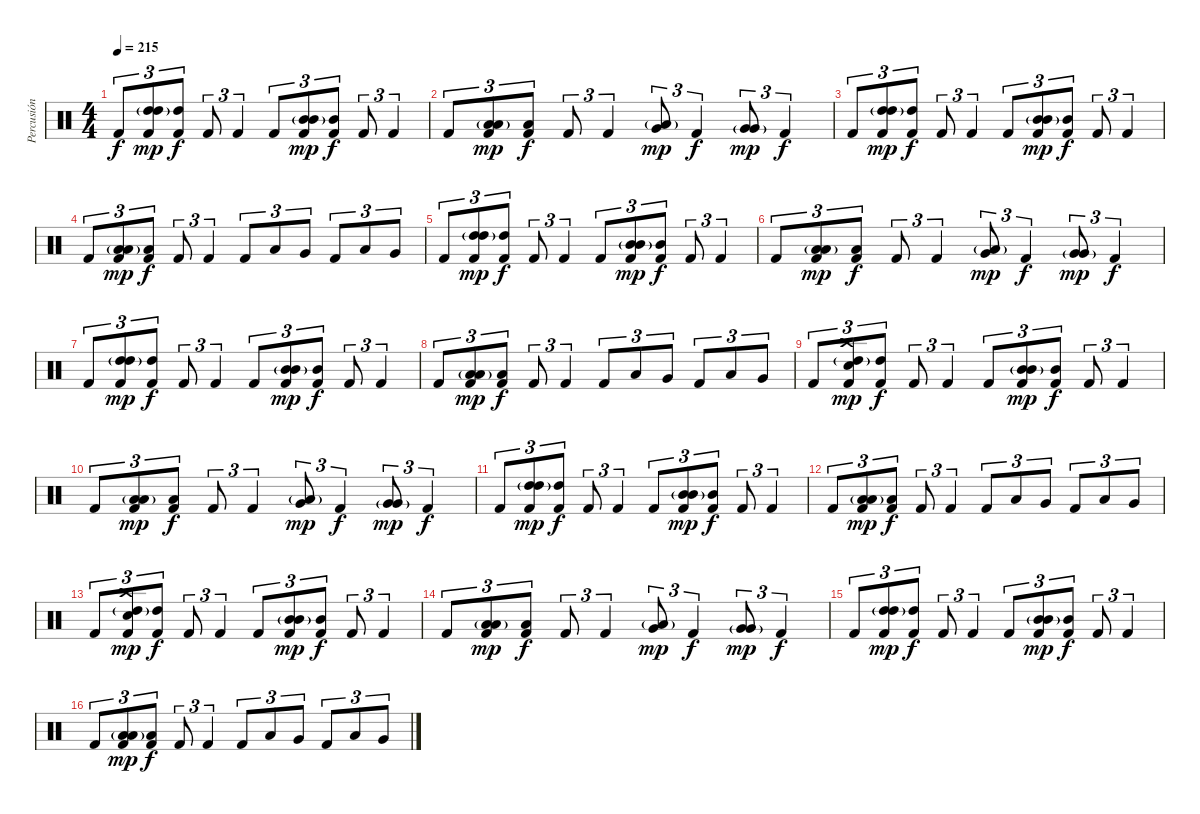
\track ("Percusión" "Percusión") {instrument percussion}
\staff {score}
\articulation defaults
\ts (4 4)
\tempo 215
\clef neutral
\ks c "Kick (hit) 2".8{tu (3 2) dy f}
("High Tom (hit)"{g} "High Tom (hit)" "Kick (hit) 2").8{tu (3 2) dy mp} ("High Tom (hit)" "Kick (hit) 2").8{tu (3 2) dy f} "Kick (hit) 2".8{tu (3 2)} "Kick (hit) 2".4{tu (3 2)} "Kick (hit) 2".8{tu (3 2)} ("Mid Tom (hit)"{g} "Mid Tom (hit)" "Kick (hit) 2").8{tu (3 2) dy mp} ("Mid Tom (hit)" "Kick (hit) 2").8{tu (3 2) dy f} "Kick (hit) 2".8{tu (3 2)} "Kick (hit) 2".4{tu (3 2)} |
"Kick (hit) 2".8{tu (3 2)} ("Low Tom (hit)"{g} "Low Tom (hit)" "Kick (hit) 2").8{tu (3 2) dy mp} ("Low Tom (hit)" "Kick (hit) 2").8{tu (3 2) dy f} "Kick (hit) 2".8{tu (3 2)} "Kick (hit) 2".4{tu (3 2)} ("Very Low Tom (hit)" "Low Tom (hit)"{g}).8{tu (3 2) dy mp} "Kick (hit) 2".4{tu (3 2) dy f} ("Very Low Tom (hit)" "Very Low Tom (hit)"{g}).8{tu (3 2) dy mp} "Kick (hit) 2".4{tu (3 2) dy f} |
"Kick (hit) 2".8{tu (3 2)} ("High Tom (hit)"{g} "High Tom (hit)" "Kick (hit) 2").8{tu (3 2) dy mp} ("High Tom (hit)" "Kick (hit) 2").8{tu (3 2) dy f} "Kick (hit) 2".8{tu (3 2)} "Kick (hit) 2".4{tu (3 2)} "Kick (hit) 2".8{tu (3 2)} ("Mid Tom (hit)"{g} "Mid Tom (hit)" "Kick (hit) 2").8{tu (3 2) dy mp} ("Mid Tom (hit)" "Kick (hit) 2").8{tu (3 2) dy f} "Kick (hit) 2".8{tu (3 2)} "Kick (hit) 2".4{tu (3 2)} |
"Kick (hit) 2".8{tu (3 2)} ("Low Tom (hit)"{g} "Low Tom (hit)" "Kick (hit) 2").8{tu (3 2) dy mp} ("Low Tom (hit)" "Kick (hit) 2").8{tu (3 2) dy f} "Kick (hit) 2".8{tu (3 2)} "Kick (hit) 2".4{tu (3 2)} "Kick (hit) 2".8{tu (3 2)} "Low Tom (hit)".8{tu (3 2)} "Very Low Tom (hit)".8{tu (3 2)} "Kick (hit) 2".8{tu (3 2)} "Low Tom (hit)".8{tu (3 2)} "Very Low Tom (hit)".8{tu (3 2)} |
"Kick (hit) 2".8{tu (3 2)} ("High Tom (hit)"{g} "High Tom (hit)" "Kick (hit) 2").8{tu (3 2) dy mp} ("High Tom (hit)" "Kick (hit) 2").8{tu (3 2) dy f} "Kick (hit) 2".8{tu (3 2)} "Kick (hit) 2".4{tu (3 2)} "Kick (hit) 2".8{tu (3 2)} ("Mid Tom (hit)"{g} "Mid Tom (hit)" "Kick (hit) 2").8{tu (3 2) dy mp} ("Mid Tom (hit)" "Kick (hit) 2").8{tu (3 2) dy f} "Kick (hit) 2".8{tu (3 2)} "Kick (hit) 2".4{tu (3 2)} |
"Kick (hit) 2".8{tu (3 2)} ("Low Tom (hit)"{g} "Low Tom (hit)" "Kick (hit) 2").8{tu (3 2) dy mp} ("Low Tom (hit)" "Kick (hit) 2").8{tu (3 2) dy f} "Kick (hit) 2".8{tu (3 2)} "Kick (hit) 2".4{tu (3 2)} ("Very Low Tom (hit)" "Low Tom (hit)"{g}).8{tu (3 2) dy mp} "Kick (hit) 2".4{tu (3 2) dy f} ("Very Low Tom (hit)" "Very Low Tom (hit)"{g}).8{tu (3 2) dy mp} "Kick (hit) 2".4{tu (3 2) dy f} |
"Kick (hit) 2".8{tu (3 2)} ("High Tom (hit)"{g} "High Tom (hit)" "Kick (hit) 2").8{tu (3 2) dy mp} ("High Tom (hit)" "Kick (hit) 2").8{tu (3 2) dy f} "Kick (hit) 2".8{tu (3 2)} "Kick (hit) 2".4{tu (3 2)} "Kick (hit) 2".8{tu (3 2)} ("Mid Tom (hit)"{g} "Mid Tom (hit)" "Kick (hit) 2").8{tu (3 2) dy mp} ("Mid Tom (hit)" "Kick (hit) 2").8{tu (3 2) dy f} "Kick (hit) 2".8{tu (3 2)} "Kick (hit) 2".4{tu (3 2)} |
"Kick (hit) 2".8{tu (3 2)} ("Low Tom (hit)"{g} "Low Tom (hit)" "Kick (hit) 2").8{tu (3 2) dy mp} ("Low Tom (hit)" "Kick (hit) 2").8{tu (3 2) dy f} "Kick (hit) 2".8{tu (3 2)} "Kick (hit) 2".4{tu (3 2)} "Kick (hit) 2".8{tu (3 2)} "Low Tom (hit)".8{tu (3 2)} "Very Low Tom (hit)".8{tu (3 2)} "Kick (hit) 2".8{tu (3 2)} "Low Tom (hit)".8{tu (3 2)} "Very Low Tom (hit)".8{tu (3 2)} |
"Kick (hit) 2".8{tu (3 2)} ("Crash high (hit)" "High Tom (hit)"{g} "Snare (hit) 2" "Kick (hit) 2").8{tu (3 2) dy mp} ("High Tom (hit)" "Kick (hit) 2").8{tu (3 2) dy f} "Kick (hit) 2".8{tu (3 2)} "Kick (hit) 2".4{tu (3 2)} "Kick (hit) 2".8{tu (3 2)} ("Mid Tom (hit)"{g} "Mid Tom (hit)" "Kick (hit) 2").8{tu (3 2) dy mp} ("Mid Tom (hit)" "Kick (hit) 2").8{tu (3 2) dy f} "Kick (hit) 2".8{tu (3 2)} "Kick (hit) 2".4{tu (3 2)} |
"Kick (hit) 2".8{tu (3 2)} ("Low Tom (hit)"{g} "Low Tom (hit)" "Kick (hit) 2").8{tu (3 2) dy mp} ("Low Tom (hit)" "Kick (hit) 2").8{tu (3 2) dy f} "Kick (hit) 2".8{tu (3 2)} "Kick (hit) 2".4{tu (3 2)} ("Very Low Tom (hit)" "Low Tom (hit)"{g}).8{tu (3 2) dy mp} "Kick (hit) 2".4{tu (3 2) dy f} ("Very Low Tom (hit)" "Very Low Tom (hit)"{g}).8{tu (3 2) dy mp} "Kick (hit) 2".4{tu (3 2) dy f} |
"Kick (hit) 2".8{tu (3 2)} ("High Tom (hit)"{g} "High Tom (hit)" "Kick (hit) 2").8{tu (3 2) dy mp} ("High Tom (hit)" "Kick (hit) 2").8{tu (3 2) dy f} "Kick (hit) 2".8{tu (3 2)} "Kick (hit) 2".4{tu (3 2)} "Kick (hit) 2".8{tu (3 2)} ("Mid Tom (hit)"{g} "Mid Tom (hit)" "Kick (hit) 2").8{tu (3 2) dy mp} ("Mid Tom (hit)" "Kick (hit) 2").8{tu (3 2) dy f} "Kick (hit) 2".8{tu (3 2)} "Kick (hit) 2".4{tu (3 2)} |
"Kick (hit) 2".8{tu (3 2)} ("Low Tom (hit)"{g} "Low Tom (hit)" "Kick (hit) 2").8{tu (3 2) dy mp} ("Low Tom (hit)" "Kick (hit) 2").8{tu (3 2) dy f} "Kick (hit) 2".8{tu (3 2)} "Kick (hit) 2".4{tu (3 2)} "Kick (hit) 2".8{tu (3 2)} "Low Tom (hit)".8{tu (3 2)} "Very Low Tom (hit)".8{tu (3 2)} "Kick (hit) 2".8{tu (3 2)} "Low Tom (hit)".8{tu (3 2)} "Very Low Tom (hit)".8{tu (3 2)} |
"Kick (hit) 2".8{tu (3 2)} ("Crash high (hit)" "High Tom (hit)"{g} "Snare (hit) 2" "Kick (hit) 2").8{tu (3 2) dy mp} ("High Tom (hit)" "Kick (hit) 2").8{tu (3 2) dy f} "Kick (hit) 2".8{tu (3 2)} "Kick (hit) 2".4{tu (3 2)} "Kick (hit) 2".8{tu (3 2)} ("Mid Tom (hit)"{g} "Mid Tom (hit)" "Kick (hit) 2").8{tu (3 2) dy mp} ("Mid Tom (hit)" "Kick (hit) 2").8{tu (3 2) dy f} "Kick (hit) 2".8{tu (3 2)} "Kick (hit) 2".4{tu (3 2)} |
"Kick (hit) 2".8{tu (3 2)} ("Low Tom (hit)"{g} "Low Tom (hit)" "Kick (hit) 2").8{tu (3 2) dy mp} ("Low Tom (hit)" "Kick (hit) 2").8{tu (3 2) dy f} "Kick (hit) 2".8{tu (3 2)} "Kick (hit) 2".4{tu (3 2)} ("Very Low Tom (hit)" "Low Tom (hit)"{g}).8{tu (3 2) dy mp} "Kick (hit) 2".4{tu (3 2) dy f} ("Very Low Tom (hit)" "Very Low Tom (hit)"{g}).8{tu (3 2) dy mp} "Kick (hit) 2".4{tu (3 2) dy f} |
"Kick (hit) 2".8{tu (3 2)} ("High Tom (hit)"{g} "High Tom (hit)" "Kick (hit) 2").8{tu (3 2) dy mp} ("High Tom (hit)" "Kick (hit) 2").8{tu (3 2) dy f} "Kick (hit) 2".8{tu (3 2)} "Kick (hit) 2".4{tu (3 2)} "Kick (hit) 2".8{tu (3 2)} ("Mid Tom (hit)"{g} "Mid Tom (hit)" "Kick (hit) 2").8{tu (3 2) dy mp} ("Mid Tom (hit)" "Kick (hit) 2").8{tu (3 2) dy f} "Kick (hit) 2".8{tu (3 2)} "Kick (hit) 2".4{tu (3 2)} |
"Kick (hit) 2".8{tu (3 2)} ("Low Tom (hit)"{g} "Low Tom (hit)" "Kick (hit) 2").8{tu (3 2) dy mp} ("Low Tom (hit)" "Kick (hit) 2").8{tu (3 2) dy f} "Kick (hit) 2".8{tu (3 2)} "Kick (hit) 2".4{tu (3 2)} "Kick (hit) 2".8{tu (3 2)} "Low Tom (hit)".8{tu (3 2)} "Very Low Tom (hit)".8{tu (3 2)} "Kick (hit) 2".8{tu (3 2)} "Low Tom (hit)".8{tu (3 2)} "Very Low Tom (hit)".8{tu (3 2)}
